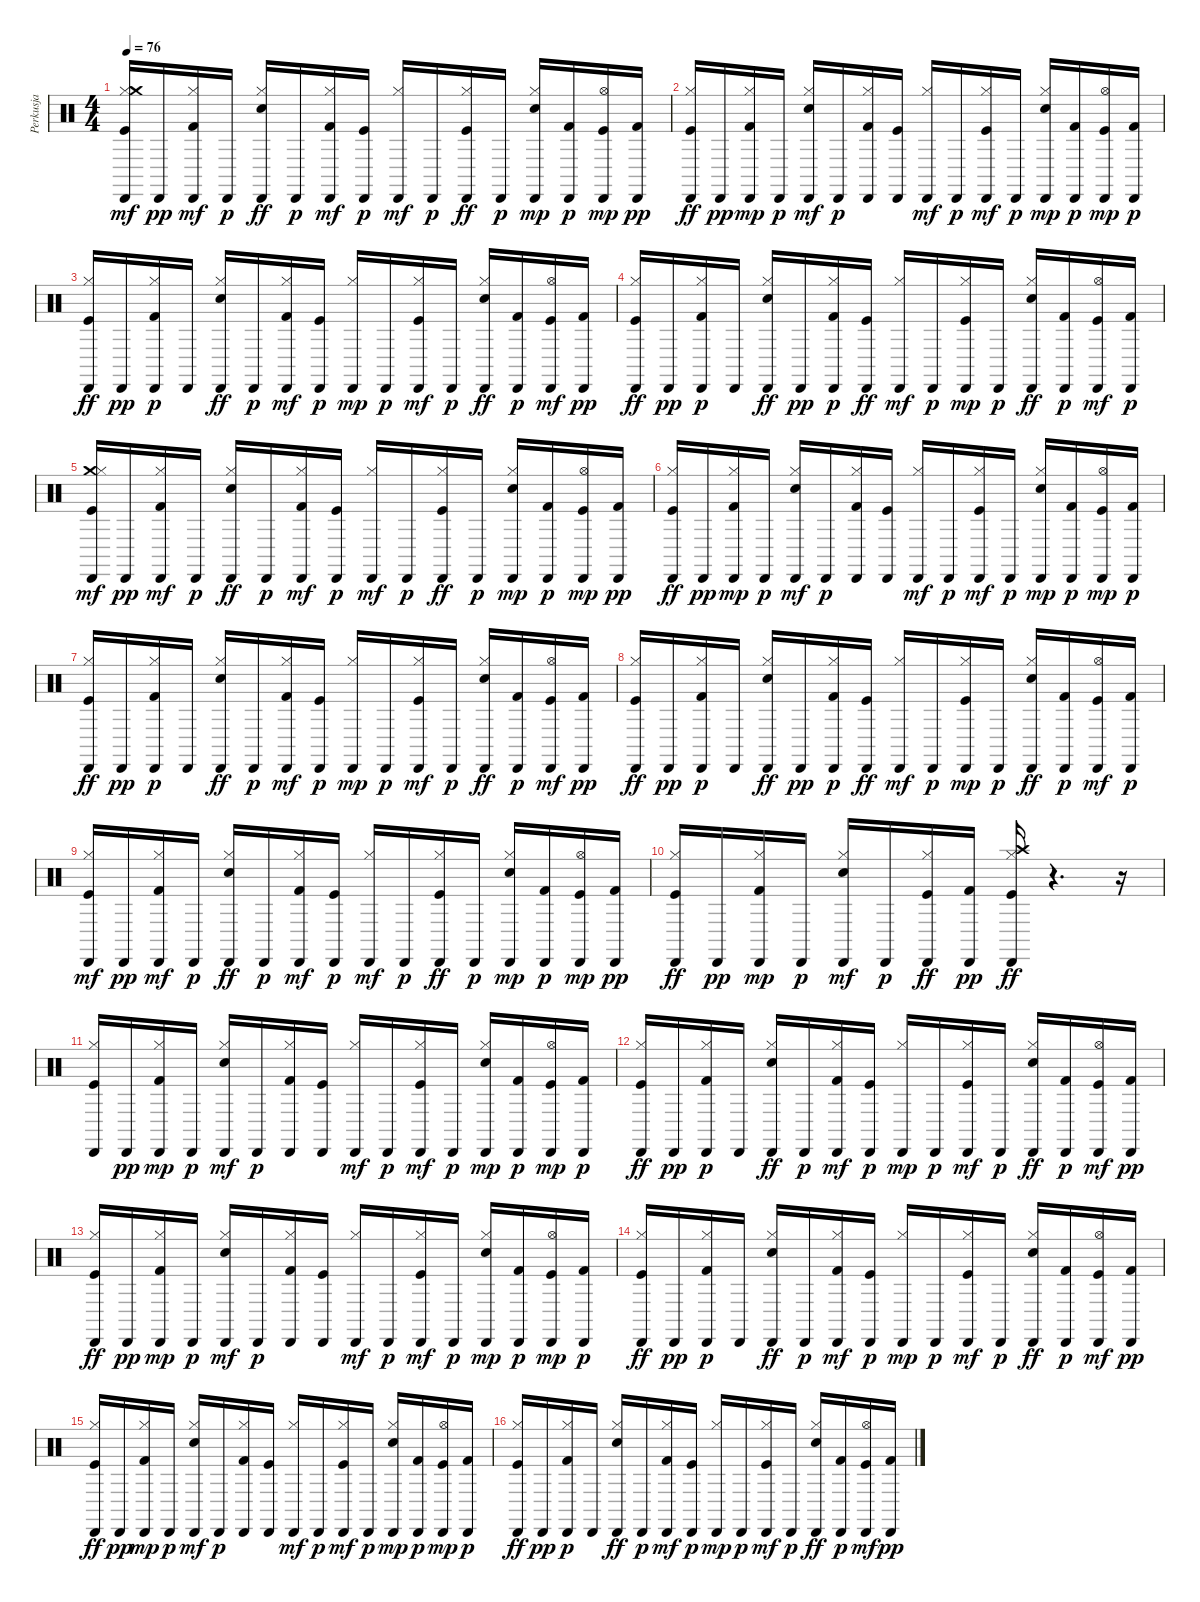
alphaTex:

\track ("Perkusja" "Perkusja") {instrument percussion}
\staff {score}
\articulation defaults
\ts (4 4)
\tempo 76
\clef neutral
\ks c
("Cabasa (hit)" "Kick (hit)" "Hi-Hat (closed)" "Crash medium (hit)").16{dy mf} "Cabasa (hit)".16{dy pp} ("Cabasa (hit)" "Kick (hit) 2" "Hi-Hat (closed)").16{dy mf} "Cabasa (hit)".16{dy p} ("Cabasa (hit)" "Hi-Hat (closed)" "Snare (hit) 2").16{dy ff} "Cabasa (hit)".16{dy p} ("Cabasa (hit)" "Kick (hit) 2" "Hi-Hat (closed)").16{dy mf} ("Cabasa (hit)" "Kick (hit)").16{dy p} ("Cabasa (hit)" "Hi-Hat (closed)").16{dy mf} "Cabasa (hit)".16{dy p} ("Cabasa (hit)" "Hi-Hat (closed)" "Kick (hit)").16{dy ff} "Cabasa (hit)".16{dy p} ("Cabasa (hit)" "Snare (hit) 2" "Hi-Hat (closed)").16{dy mp} ("Cabasa (hit)" "Kick (hit) 2").16{dy p} ("Kick (hit)" "Hi-Hat (open)" "Cabasa (hit)").16{dy mp} ("Cabasa (hit)" "Kick (hit) 2").16{dy pp} |
("Cabasa (hit)" "Hi-Hat (closed)" "Kick (hit)").16{dy ff} "Cabasa (hit)".16{dy pp} ("Cabasa (hit)" "Kick (hit) 2" "Hi-Hat (closed)").16{dy mp} "Cabasa (hit)".16{dy p} ("Cabasa (hit)" "Snare (hit) 2" "Hi-Hat (closed)").16{dy mf} "Cabasa (hit)".16{dy p} ("Cabasa (hit)" "Hi-Hat (closed)" "Kick (hit) 2").16 ("Cabasa (hit)" "Kick (hit)").16 ("Cabasa (hit)" "Hi-Hat (closed)").16{dy mf} "Cabasa (hit)".16{dy p} ("Cabasa (hit)" "Hi-Hat (closed)" "Kick (hit)").16{dy mf} "Cabasa (hit)".16{dy p} ("Cabasa (hit)" "Hi-Hat (closed)" "Snare (hit) 2").16{dy mp} ("Cabasa (hit)" "Kick (hit) 2").16{dy p} ("Kick (hit)" "Hi-Hat (open)" "Cabasa (hit)").16{dy mp} ("Cabasa (hit)" "Kick (hit) 2").16{dy p} |
("Cabasa (hit)" "Hi-Hat (closed)" "Kick (hit)").16{dy ff} "Cabasa (hit)".16{dy pp} ("Cabasa (hit)" "Hi-Hat (closed)" "Kick (hit) 2").16{dy p} "Cabasa (hit)".16 ("Cabasa (hit)" "Hi-Hat (closed)" "Snare (hit) 2").16{dy ff} "Cabasa (hit)".16{dy p} ("Cabasa (hit)" "Kick (hit) 2" "Hi-Hat (closed)").16{dy mf} ("Cabasa (hit)" "Kick (hit)").16{dy p} ("Cabasa (hit)" "Hi-Hat (closed)").16{dy mp} "Cabasa (hit)".16{dy p} ("Cabasa (hit)" "Hi-Hat (closed)" "Kick (hit)").16{dy mf} "Cabasa (hit)".16{dy p} ("Cabasa (hit)" "Hi-Hat (closed)" "Snare (hit) 2").16{dy ff} ("Cabasa (hit)" "Kick (hit) 2").16{dy p} ("Cabasa (hit)" "Kick (hit)" "Hi-Hat (open)").16{dy mf} ("Cabasa (hit)" "Kick (hit) 2").16{dy pp} |
("Cabasa (hit)" "Hi-Hat (closed)" "Kick (hit)").16{dy ff} "Cabasa (hit)".16{dy pp} ("Cabasa (hit)" "Hi-Hat (closed)" "Kick (hit) 2").16{dy p} "Cabasa (hit)".16 ("Hi-Hat (closed)" "Cabasa (hit)" "Snare (hit) 2").16{dy ff} "Cabasa (hit)".16{dy pp} ("Hi-Hat (closed)" "Cabasa (hit)" "Kick (hit) 2").16{dy p} ("Cabasa (hit)" "Kick (hit)").16{dy ff} ("Cabasa (hit)" "Hi-Hat (closed)").16{dy mf} "Cabasa (hit)".16{dy p} ("Cabasa (hit)" "Hi-Hat (closed)" "Kick (hit)").16{dy mp} "Cabasa (hit)".16{dy p} ("Cabasa (hit)" "Hi-Hat (closed)" "Snare (hit) 2").16{dy ff} ("Cabasa (hit)" "Kick (hit) 2").16{dy p} ("Cabasa (hit)" "Kick (hit)" "Hi-Hat (open)").16{dy mf} ("Cabasa (hit)" "Kick (hit) 2").16{dy p} |
("Crash medium (hit)" "Cabasa (hit)" "Kick (hit)" "Hi-Hat (closed)").16{dy mf} "Cabasa (hit)".16{dy pp} ("Cabasa (hit)" "Kick (hit) 2" "Hi-Hat (closed)").16{dy mf} "Cabasa (hit)".16{dy p} ("Cabasa (hit)" "Hi-Hat (closed)" "Snare (hit) 2").16{dy ff} "Cabasa (hit)".16{dy p} ("Cabasa (hit)" "Kick (hit) 2" "Hi-Hat (closed)").16{dy mf} ("Cabasa (hit)" "Kick (hit)").16{dy p} ("Cabasa (hit)" "Hi-Hat (closed)").16{dy mf} "Cabasa (hit)".16{dy p} ("Cabasa (hit)" "Hi-Hat (closed)" "Kick (hit)").16{dy ff} "Cabasa (hit)".16{dy p} ("Cabasa (hit)" "Snare (hit) 2" "Hi-Hat (closed)").16{dy mp} ("Cabasa (hit)" "Kick (hit) 2").16{dy p} ("Kick (hit)" "Hi-Hat (open)" "Cabasa (hit)").16{dy mp} ("Cabasa (hit)" "Kick (hit) 2").16{dy pp} |
("Cabasa (hit)" "Hi-Hat (closed)" "Kick (hit)").16{dy ff} "Cabasa (hit)".16{dy pp} ("Cabasa (hit)" "Kick (hit) 2" "Hi-Hat (closed)").16{dy mp} "Cabasa (hit)".16{dy p} ("Cabasa (hit)" "Snare (hit) 2" "Hi-Hat (closed)").16{dy mf} "Cabasa (hit)".16{dy p} ("Cabasa (hit)" "Hi-Hat (closed)" "Kick (hit) 2").16 ("Cabasa (hit)" "Kick (hit)").16 ("Cabasa (hit)" "Hi-Hat (closed)").16{dy mf} "Cabasa (hit)".16{dy p} ("Cabasa (hit)" "Hi-Hat (closed)" "Kick (hit)").16{dy mf} "Cabasa (hit)".16{dy p} ("Cabasa (hit)" "Hi-Hat (closed)" "Snare (hit) 2").16{dy mp} ("Cabasa (hit)" "Kick (hit) 2").16{dy p} ("Kick (hit)" "Hi-Hat (open)" "Cabasa (hit)").16{dy mp} ("Cabasa (hit)" "Kick (hit) 2").16{dy p} |
("Cabasa (hit)" "Hi-Hat (closed)" "Kick (hit)").16{dy ff} "Cabasa (hit)".16{dy pp} ("Cabasa (hit)" "Hi-Hat (closed)" "Kick (hit) 2").16{dy p} "Cabasa (hit)".16 ("Cabasa (hit)" "Hi-Hat (closed)" "Snare (hit) 2").16{dy ff} "Cabasa (hit)".16{dy p} ("Cabasa (hit)" "Kick (hit) 2" "Hi-Hat (closed)").16{dy mf} ("Cabasa (hit)" "Kick (hit)").16{dy p} ("Cabasa (hit)" "Hi-Hat (closed)").16{dy mp} "Cabasa (hit)".16{dy p} ("Cabasa (hit)" "Hi-Hat (closed)" "Kick (hit)").16{dy mf} "Cabasa (hit)".16{dy p} ("Cabasa (hit)" "Hi-Hat (closed)" "Snare (hit) 2").16{dy ff} ("Cabasa (hit)" "Kick (hit) 2").16{dy p} ("Cabasa (hit)" "Kick (hit)" "Hi-Hat (open)").16{dy mf} ("Cabasa (hit)" "Kick (hit) 2").16{dy pp} |
("Cabasa (hit)" "Hi-Hat (closed)" "Kick (hit)").16{dy ff} "Cabasa (hit)".16{dy pp} ("Cabasa (hit)" "Hi-Hat (closed)" "Kick (hit) 2").16{dy p} "Cabasa (hit)".16 ("Hi-Hat (closed)" "Cabasa (hit)" "Snare (hit) 2").16{dy ff} "Cabasa (hit)".16{dy pp} ("Hi-Hat (closed)" "Cabasa (hit)" "Kick (hit) 2").16{dy p} ("Cabasa (hit)" "Kick (hit)").16{dy ff} ("Cabasa (hit)" "Hi-Hat (closed)").16{dy mf} "Cabasa (hit)".16{dy p} ("Cabasa (hit)" "Hi-Hat (closed)" "Kick (hit)").16{dy mp} "Cabasa (hit)".16{dy p} ("Cabasa (hit)" "Hi-Hat (closed)" "Snare (hit) 2").16{dy ff} ("Cabasa (hit)" "Kick (hit) 2").16{dy p} ("Cabasa (hit)" "Kick (hit)" "Hi-Hat (open)").16{dy mf} ("Cabasa (hit)" "Kick (hit) 2").16{dy p} |
("Cabasa (hit)" "Kick (hit)" "Hi-Hat (closed)").16{dy mf} "Cabasa (hit)".16{dy pp} ("Cabasa (hit)" "Kick (hit) 2" "Hi-Hat (closed)").16{dy mf} "Cabasa (hit)".16{dy p} ("Cabasa (hit)" "Hi-Hat (closed)" "Snare (hit) 2").16{dy ff} "Cabasa (hit)".16{dy p} ("Cabasa (hit)" "Kick (hit) 2" "Hi-Hat (closed)").16{dy mf} ("Cabasa (hit)" "Kick (hit)").16{dy p} ("Cabasa (hit)" "Hi-Hat (closed)").16{dy mf} "Cabasa (hit)".16{dy p} ("Cabasa (hit)" "Hi-Hat (closed)" "Kick (hit)").16{dy ff} "Cabasa (hit)".16{dy p} ("Cabasa (hit)" "Snare (hit) 2" "Hi-Hat (closed)").16{dy mp} ("Cabasa (hit)" "Kick (hit) 2").16{dy p} ("Kick (hit)" "Hi-Hat (open)" "Cabasa (hit)").16{dy mp} ("Cabasa (hit)" "Kick (hit) 2").16{dy pp} |
("Cabasa (hit)" "Hi-Hat (closed)" "Kick (hit)").16{dy ff} "Cabasa (hit)".16{dy pp} ("Cabasa (hit)" "Kick (hit) 2" "Hi-Hat (closed)").16{dy mp} "Cabasa (hit)".16{dy p} ("Cabasa (hit)" "Snare (hit) 2" "Hi-Hat (closed)").16{dy mf} "Cabasa (hit)".16{dy p} ("Cabasa (hit)" "Hi-Hat (closed)" "Kick (hit)").16{dy ff} ("Cabasa (hit)" "Kick (hit) 2").16{dy pp} ("Crash high (hit)" "Cabasa (hit)" "Hi-Hat (closed)" "Kick (hit)").16{dy ff} r.4{d} r.16 |
("Cabasa (hit)" "Hi-Hat (closed)" "Kick (hit)").16 "Cabasa (hit)".16{dy pp} ("Cabasa (hit)" "Kick (hit) 2" "Hi-Hat (closed)").16{dy mp} "Cabasa (hit)".16{dy p} ("Cabasa (hit)" "Snare (hit) 2" "Hi-Hat (closed)").16{dy mf} "Cabasa (hit)".16{dy p} ("Cabasa (hit)" "Hi-Hat (closed)" "Kick (hit) 2").16 ("Cabasa (hit)" "Kick (hit)").16 ("Cabasa (hit)" "Hi-Hat (closed)").16{dy mf} "Cabasa (hit)".16{dy p} ("Cabasa (hit)" "Hi-Hat (closed)" "Kick (hit)").16{dy mf} "Cabasa (hit)".16{dy p} ("Cabasa (hit)" "Hi-Hat (closed)" "Snare (hit) 2").16{dy mp} ("Cabasa (hit)" "Kick (hit) 2").16{dy p} ("Kick (hit)" "Hi-Hat (open)" "Cabasa (hit)").16{dy mp} ("Cabasa (hit)" "Kick (hit) 2").16{dy p} |
("Cabasa (hit)" "Hi-Hat (closed)" "Kick (hit)").16{dy ff} "Cabasa (hit)".16{dy pp} ("Cabasa (hit)" "Hi-Hat (closed)" "Kick (hit) 2").16{dy p} "Cabasa (hit)".16 ("Cabasa (hit)" "Hi-Hat (closed)" "Snare (hit) 2").16{dy ff} "Cabasa (hit)".16{dy p} ("Cabasa (hit)" "Kick (hit) 2" "Hi-Hat (closed)").16{dy mf} ("Cabasa (hit)" "Kick (hit)").16{dy p} ("Cabasa (hit)" "Hi-Hat (closed)").16{dy mp} "Cabasa (hit)".16{dy p} ("Cabasa (hit)" "Hi-Hat (closed)" "Kick (hit)").16{dy mf} "Cabasa (hit)".16{dy p} ("Cabasa (hit)" "Hi-Hat (closed)" "Snare (hit) 2").16{dy ff} ("Cabasa (hit)" "Kick (hit) 2").16{dy p} ("Cabasa (hit)" "Kick (hit)" "Hi-Hat (open)").16{dy mf} ("Cabasa (hit)" "Kick (hit) 2").16{dy pp} |
("Cabasa (hit)" "Hi-Hat (closed)" "Kick (hit)").16{dy ff} "Cabasa (hit)".16{dy pp} ("Cabasa (hit)" "Kick (hit) 2" "Hi-Hat (closed)").16{dy mp} "Cabasa (hit)".16{dy p} ("Cabasa (hit)" "Snare (hit) 2" "Hi-Hat (closed)").16{dy mf} "Cabasa (hit)".16{dy p} ("Cabasa (hit)" "Hi-Hat (closed)" "Kick (hit) 2").16 ("Cabasa (hit)" "Kick (hit)").16 ("Cabasa (hit)" "Hi-Hat (closed)").16{dy mf} "Cabasa (hit)".16{dy p} ("Cabasa (hit)" "Hi-Hat (closed)" "Kick (hit)").16{dy mf} "Cabasa (hit)".16{dy p} ("Cabasa (hit)" "Hi-Hat (closed)" "Snare (hit) 2").16{dy mp} ("Cabasa (hit)" "Kick (hit) 2").16{dy p} ("Kick (hit)" "Hi-Hat (open)" "Cabasa (hit)").16{dy mp} ("Cabasa (hit)" "Kick (hit) 2").16{dy p} |
("Cabasa (hit)" "Hi-Hat (closed)" "Kick (hit)").16{dy ff} "Cabasa (hit)".16{dy pp} ("Cabasa (hit)" "Hi-Hat (closed)" "Kick (hit) 2").16{dy p} "Cabasa (hit)".16 ("Cabasa (hit)" "Hi-Hat (closed)" "Snare (hit) 2").16{dy ff} "Cabasa (hit)".16{dy p} ("Cabasa (hit)" "Kick (hit) 2" "Hi-Hat (closed)").16{dy mf} ("Cabasa (hit)" "Kick (hit)").16{dy p} ("Cabasa (hit)" "Hi-Hat (closed)").16{dy mp} "Cabasa (hit)".16{dy p} ("Cabasa (hit)" "Hi-Hat (closed)" "Kick (hit)").16{dy mf} "Cabasa (hit)".16{dy p} ("Cabasa (hit)" "Hi-Hat (closed)" "Snare (hit) 2").16{dy ff} ("Cabasa (hit)" "Kick (hit) 2").16{dy p} ("Cabasa (hit)" "Kick (hit)" "Hi-Hat (open)").16{dy mf} ("Cabasa (hit)" "Kick (hit) 2").16{dy pp} |
("Cabasa (hit)" "Hi-Hat (closed)" "Kick (hit)").16{dy ff} "Cabasa (hit)".16{dy pp} ("Cabasa (hit)" "Kick (hit) 2" "Hi-Hat (closed)").16{dy mp} "Cabasa (hit)".16{dy p} ("Cabasa (hit)" "Snare (hit) 2" "Hi-Hat (closed)").16{dy mf} "Cabasa (hit)".16{dy p} ("Cabasa (hit)" "Hi-Hat (closed)" "Kick (hit) 2").16 ("Cabasa (hit)" "Kick (hit)").16 ("Cabasa (hit)" "Hi-Hat (closed)").16{dy mf} "Cabasa (hit)".16{dy p} ("Cabasa (hit)" "Hi-Hat (closed)" "Kick (hit)").16{dy mf} "Cabasa (hit)".16{dy p} ("Cabasa (hit)" "Hi-Hat (closed)" "Snare (hit) 2").16{dy mp} ("Cabasa (hit)" "Kick (hit) 2").16{dy p} ("Kick (hit)" "Hi-Hat (open)" "Cabasa (hit)").16{dy mp} ("Cabasa (hit)" "Kick (hit) 2").16{dy p} |
("Cabasa (hit)" "Hi-Hat (closed)" "Kick (hit)").16{dy ff} "Cabasa (hit)".16{dy pp} ("Cabasa (hit)" "Hi-Hat (closed)" "Kick (hit) 2").16{dy p} "Cabasa (hit)".16 ("Cabasa (hit)" "Hi-Hat (closed)" "Snare (hit) 2").16{dy ff} "Cabasa (hit)".16{dy p} ("Cabasa (hit)" "Kick (hit) 2" "Hi-Hat (closed)").16{dy mf} ("Cabasa (hit)" "Kick (hit)").16{dy p} ("Cabasa (hit)" "Hi-Hat (closed)").16{dy mp} "Cabasa (hit)".16{dy p} ("Cabasa (hit)" "Hi-Hat (closed)" "Kick (hit)").16{dy mf} "Cabasa (hit)".16{dy p} ("Cabasa (hit)" "Hi-Hat (closed)" "Snare (hit) 2").16{dy ff} ("Cabasa (hit)" "Kick (hit) 2").16{dy p} ("Cabasa (hit)" "Kick (hit)" "Hi-Hat (open)").16{dy mf} ("Cabasa (hit)" "Kick (hit) 2").16{dy pp}
